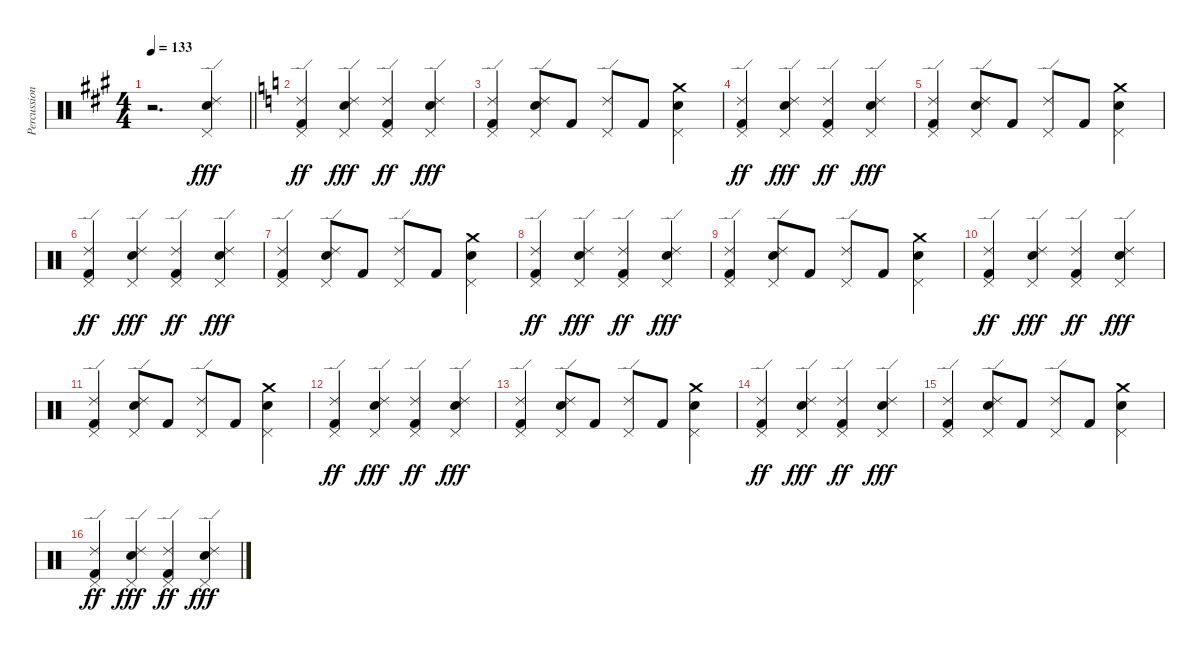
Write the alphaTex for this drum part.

\track ("Percussion" "Percussion") {instrument percussion}
\staff {score}
\articulation defaults
\ts (4 4)
\tempo 133
\clef neutral
\barLineRight lightlight
\ks a
r.2{d dy fff} ("Ride (edge) 2" "Electric Snare (hit)" "Pedal Hi-Hat (hit)").4 |
\ks c
("Ride (edge) 2" "Pedal Hi-Hat (hit)" "Kick (hit) 2").4{dy ff} ("Ride (edge) 2" "Electric Snare (hit)" "Pedal Hi-Hat (hit)").4{dy fff} ("Ride (edge) 2" "Pedal Hi-Hat (hit)" "Kick (hit) 2").4{dy ff} ("Ride (edge) 2" "Electric Snare (hit)" "Pedal Hi-Hat (hit)").4{dy fff} |
("Ride (edge) 2" "Pedal Hi-Hat (hit)" "Kick (hit) 2").4 ("Ride (edge) 2" "Electric Snare (hit)" "Pedal Hi-Hat (hit)").8 "Kick (hit) 2".8 ("Ride (edge) 2" "Pedal Hi-Hat (hit)").8 "Kick (hit) 2".8 ("Crash medium (hit)" "Electric Snare (hit)" "Pedal Hi-Hat (hit)").4 |
("Ride (edge) 2" "Pedal Hi-Hat (hit)" "Kick (hit) 2").4{dy ff} ("Ride (edge) 2" "Electric Snare (hit)" "Pedal Hi-Hat (hit)").4{dy fff} ("Ride (edge) 2" "Pedal Hi-Hat (hit)" "Kick (hit) 2").4{dy ff} ("Ride (edge) 2" "Electric Snare (hit)" "Pedal Hi-Hat (hit)").4{dy fff} |
("Ride (edge) 2" "Pedal Hi-Hat (hit)" "Kick (hit) 2").4 ("Ride (edge) 2" "Electric Snare (hit)" "Pedal Hi-Hat (hit)").8 "Kick (hit) 2".8 ("Ride (edge) 2" "Pedal Hi-Hat (hit)").8 "Kick (hit) 2".8 ("Crash medium (hit)" "Electric Snare (hit)" "Pedal Hi-Hat (hit)").4 |
("Ride (edge) 2" "Pedal Hi-Hat (hit)" "Kick (hit) 2").4{dy ff} ("Ride (edge) 2" "Electric Snare (hit)" "Pedal Hi-Hat (hit)").4{dy fff} ("Ride (edge) 2" "Pedal Hi-Hat (hit)" "Kick (hit) 2").4{dy ff} ("Ride (edge) 2" "Electric Snare (hit)" "Pedal Hi-Hat (hit)").4{dy fff} |
("Ride (edge) 2" "Pedal Hi-Hat (hit)" "Kick (hit) 2").4 ("Ride (edge) 2" "Electric Snare (hit)" "Pedal Hi-Hat (hit)").8 "Kick (hit) 2".8 ("Ride (edge) 2" "Pedal Hi-Hat (hit)").8 "Kick (hit) 2".8 ("Crash medium (hit)" "Electric Snare (hit)" "Pedal Hi-Hat (hit)").4 |
("Ride (edge) 2" "Pedal Hi-Hat (hit)" "Kick (hit) 2").4{dy ff} ("Ride (edge) 2" "Electric Snare (hit)" "Pedal Hi-Hat (hit)").4{dy fff} ("Ride (edge) 2" "Pedal Hi-Hat (hit)" "Kick (hit) 2").4{dy ff} ("Ride (edge) 2" "Electric Snare (hit)" "Pedal Hi-Hat (hit)").4{dy fff} |
("Ride (edge) 2" "Pedal Hi-Hat (hit)" "Kick (hit) 2").4 ("Ride (edge) 2" "Electric Snare (hit)" "Pedal Hi-Hat (hit)").8 "Kick (hit) 2".8 ("Ride (edge) 2" "Pedal Hi-Hat (hit)").8 "Kick (hit) 2".8 ("Crash medium (hit)" "Electric Snare (hit)" "Pedal Hi-Hat (hit)").4 |
("Ride (edge) 2" "Pedal Hi-Hat (hit)" "Kick (hit) 2").4{dy ff} ("Ride (edge) 2" "Electric Snare (hit)" "Pedal Hi-Hat (hit)").4{dy fff} ("Ride (edge) 2" "Pedal Hi-Hat (hit)" "Kick (hit) 2").4{dy ff} ("Ride (edge) 2" "Electric Snare (hit)" "Pedal Hi-Hat (hit)").4{dy fff} |
("Ride (edge) 2" "Pedal Hi-Hat (hit)" "Kick (hit) 2").4 ("Ride (edge) 2" "Electric Snare (hit)" "Pedal Hi-Hat (hit)").8 "Kick (hit) 2".8 ("Ride (edge) 2" "Pedal Hi-Hat (hit)").8 "Kick (hit) 2".8 ("Crash medium (hit)" "Electric Snare (hit)" "Pedal Hi-Hat (hit)").4 |
("Ride (edge) 2" "Pedal Hi-Hat (hit)" "Kick (hit) 2").4{dy ff} ("Ride (edge) 2" "Electric Snare (hit)" "Pedal Hi-Hat (hit)").4{dy fff} ("Ride (edge) 2" "Pedal Hi-Hat (hit)" "Kick (hit) 2").4{dy ff} ("Ride (edge) 2" "Electric Snare (hit)" "Pedal Hi-Hat (hit)").4{dy fff} |
("Ride (edge) 2" "Pedal Hi-Hat (hit)" "Kick (hit) 2").4 ("Ride (edge) 2" "Electric Snare (hit)" "Pedal Hi-Hat (hit)").8 "Kick (hit) 2".8 ("Ride (edge) 2" "Pedal Hi-Hat (hit)").8 "Kick (hit) 2".8 ("Crash medium (hit)" "Electric Snare (hit)" "Pedal Hi-Hat (hit)").4 |
("Ride (edge) 2" "Pedal Hi-Hat (hit)" "Kick (hit) 2").4{dy ff} ("Ride (edge) 2" "Electric Snare (hit)" "Pedal Hi-Hat (hit)").4{dy fff} ("Ride (edge) 2" "Pedal Hi-Hat (hit)" "Kick (hit) 2").4{dy ff} ("Ride (edge) 2" "Electric Snare (hit)" "Pedal Hi-Hat (hit)").4{dy fff} |
("Ride (edge) 2" "Pedal Hi-Hat (hit)" "Kick (hit) 2").4 ("Ride (edge) 2" "Electric Snare (hit)" "Pedal Hi-Hat (hit)").8 "Kick (hit) 2".8 ("Ride (edge) 2" "Pedal Hi-Hat (hit)").8 "Kick (hit) 2".8 ("Crash medium (hit)" "Electric Snare (hit)" "Pedal Hi-Hat (hit)").4 |
("Ride (edge) 2" "Pedal Hi-Hat (hit)" "Kick (hit) 2").4{dy ff} ("Ride (edge) 2" "Electric Snare (hit)" "Pedal Hi-Hat (hit)").4{dy fff} ("Ride (edge) 2" "Pedal Hi-Hat (hit)" "Kick (hit) 2").4{dy ff} ("Ride (edge) 2" "Electric Snare (hit)" "Pedal Hi-Hat (hit)").4{dy fff}
